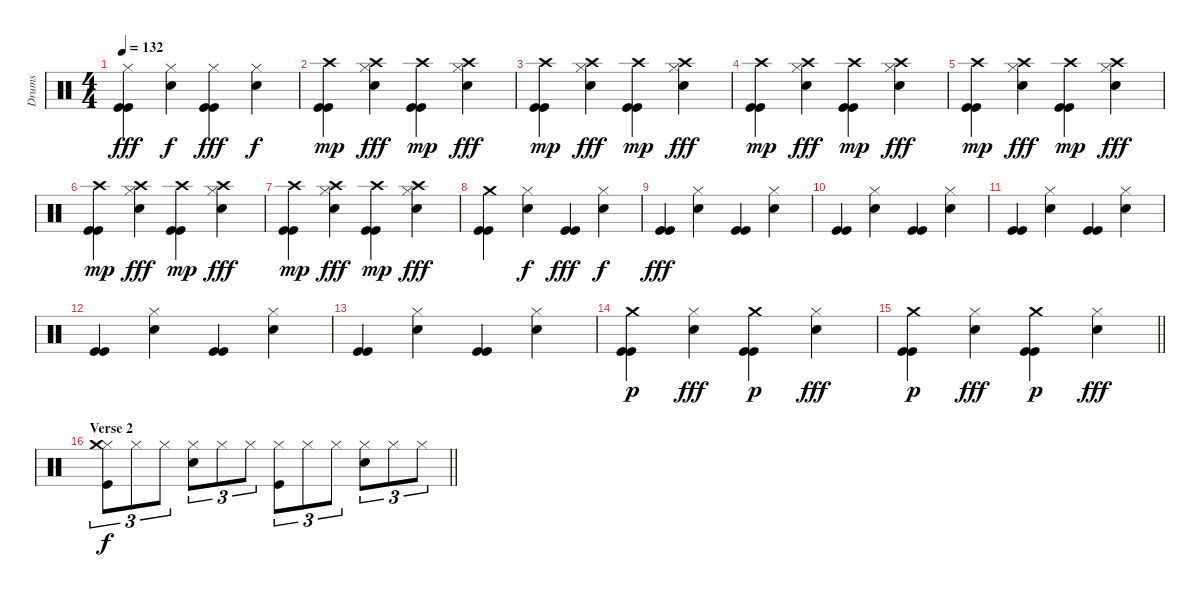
\track ("Drums" "Drums") {instrument percussion}
\staff {score}
\articulation defaults
\ts (4 4)
\tempo 132
\clef neutral
\ks c
("Hi-Hat (closed)" "Kick (hit)" "Kick (hit)").4{dy fff} ("Hi-Hat (closed)" "Snare (hit) 2").4{dy f} ("Hi-Hat (closed)" "Kick (hit)" "Kick (hit)").4{dy fff} ("Hi-Hat (closed)" "Snare (hit) 2").4{dy f} |
("Kick (hit)" "Kick (hit)" "Crash high (hit)").4{dy mp} ("Hi-Hat (closed)" "Crash high (hit)" "Snare (hit) 2").4{dy fff} ("Kick (hit)" "Kick (hit)" "Crash high (hit)").4{dy mp} ("Hi-Hat (closed)" "Crash high (hit)" "Snare (hit) 2").4{dy fff} |
("Kick (hit)" "Kick (hit)" "Crash high (hit)").4{dy mp} ("Hi-Hat (closed)" "Crash high (hit)" "Snare (hit) 2").4{dy fff} ("Kick (hit)" "Kick (hit)" "Crash high (hit)").4{dy mp} ("Hi-Hat (closed)" "Crash high (hit)" "Snare (hit) 2").4{dy fff} |
("Kick (hit)" "Kick (hit)" "Crash high (hit)").4{dy mp} ("Hi-Hat (closed)" "Crash high (hit)" "Snare (hit) 2").4{dy fff} ("Kick (hit)" "Kick (hit)" "Crash high (hit)").4{dy mp} ("Hi-Hat (closed)" "Crash high (hit)" "Snare (hit) 2").4{dy fff} |
("Kick (hit)" "Kick (hit)" "Crash high (hit)").4{dy mp} ("Hi-Hat (closed)" "Crash high (hit)" "Snare (hit) 2").4{dy fff} ("Kick (hit)" "Kick (hit)" "Crash high (hit)").4{dy mp} ("Hi-Hat (closed)" "Crash high (hit)" "Snare (hit) 2").4{dy fff} |
("Kick (hit)" "Kick (hit)" "Crash high (hit)").4{dy mp} ("Hi-Hat (closed)" "Crash high (hit)" "Snare (hit) 2").4{dy fff} ("Kick (hit)" "Kick (hit)" "Crash high (hit)").4{dy mp} ("Hi-Hat (closed)" "Crash high (hit)" "Snare (hit) 2").4{dy fff} |
("Kick (hit)" "Kick (hit)" "Crash high (hit)").4{dy mp} ("Hi-Hat (closed)" "Crash high (hit)" "Snare (hit) 2").4{dy fff} ("Kick (hit)" "Kick (hit)" "Crash high (hit)").4{dy mp} ("Hi-Hat (closed)" "Crash high (hit)" "Snare (hit) 2").4{dy fff} |
("Kick (hit)" "Kick (hit)" "Crash medium (hit)").4 ("Hi-Hat (closed)" "Snare (hit) 2").4{dy f} ("Kick (hit)" "Kick (hit)").4{dy fff} ("Hi-Hat (closed)" "Snare (hit) 2").4{dy f} |
("Kick (hit)" "Kick (hit)").4{dy fff} ("Hi-Hat (closed)" "Snare (hit) 2").4 ("Kick (hit)" "Kick (hit)").4 ("Hi-Hat (closed)" "Snare (hit) 2").4 |
("Kick (hit)" "Kick (hit)").4 ("Hi-Hat (closed)" "Snare (hit) 2").4 ("Kick (hit)" "Kick (hit)").4 ("Hi-Hat (closed)" "Snare (hit) 2").4 |
("Kick (hit)" "Kick (hit)").4 ("Hi-Hat (closed)" "Snare (hit) 2").4 ("Kick (hit)" "Kick (hit)").4 ("Hi-Hat (closed)" "Snare (hit) 2").4 |
("Kick (hit)" "Kick (hit)").4 ("Hi-Hat (closed)" "Snare (hit) 2").4 ("Kick (hit)" "Kick (hit)").4 ("Hi-Hat (closed)" "Snare (hit) 2").4 |
("Kick (hit)" "Kick (hit)").4 ("Hi-Hat (closed)" "Snare (hit) 2").4 ("Kick (hit)" "Kick (hit)").4 ("Hi-Hat (closed)" "Snare (hit) 2").4 |
("Kick (hit)" "Kick (hit)" "Crash medium (hit)").4{dy p} ("Hi-Hat (closed)" "Snare (hit) 2").4{dy fff} ("Kick (hit)" "Kick (hit)" "Crash medium (hit)").4{dy p} ("Hi-Hat (closed)" "Snare (hit) 2").4{dy fff} |
\barLineRight lightlight
("Kick (hit)" "Kick (hit)" "Crash medium (hit)").4{dy p} ("Hi-Hat (closed)" "Snare (hit) 2").4{dy fff} ("Kick (hit)" "Kick (hit)" "Crash medium (hit)").4{dy p} ("Hi-Hat (closed)" "Snare (hit) 2").4{dy fff} |
\section ("" "Verse 2")
\barLineRight lightlight
("Hi-Hat (closed)" "Kick (hit)" "Crash medium (hit)").8{tu (3 2) dy f} "Hi-Hat (closed)".8{tu (3 2)} "Hi-Hat (closed)".8{tu (3 2)} ("Hi-Hat (closed)" "Snare (hit) 2").8{tu (3 2)} "Hi-Hat (closed)".8{tu (3 2)} "Hi-Hat (closed)".8{tu (3 2)} ("Hi-Hat (closed)" "Kick (hit)").8{tu (3 2)} "Hi-Hat (closed)".8{tu (3 2)} "Hi-Hat (closed)".8{tu (3 2)} ("Hi-Hat (closed)" "Snare (hit) 2").8{tu (3 2)} "Hi-Hat (closed)".8{tu (3 2)} "Hi-Hat (closed)".8{tu (3 2)}
